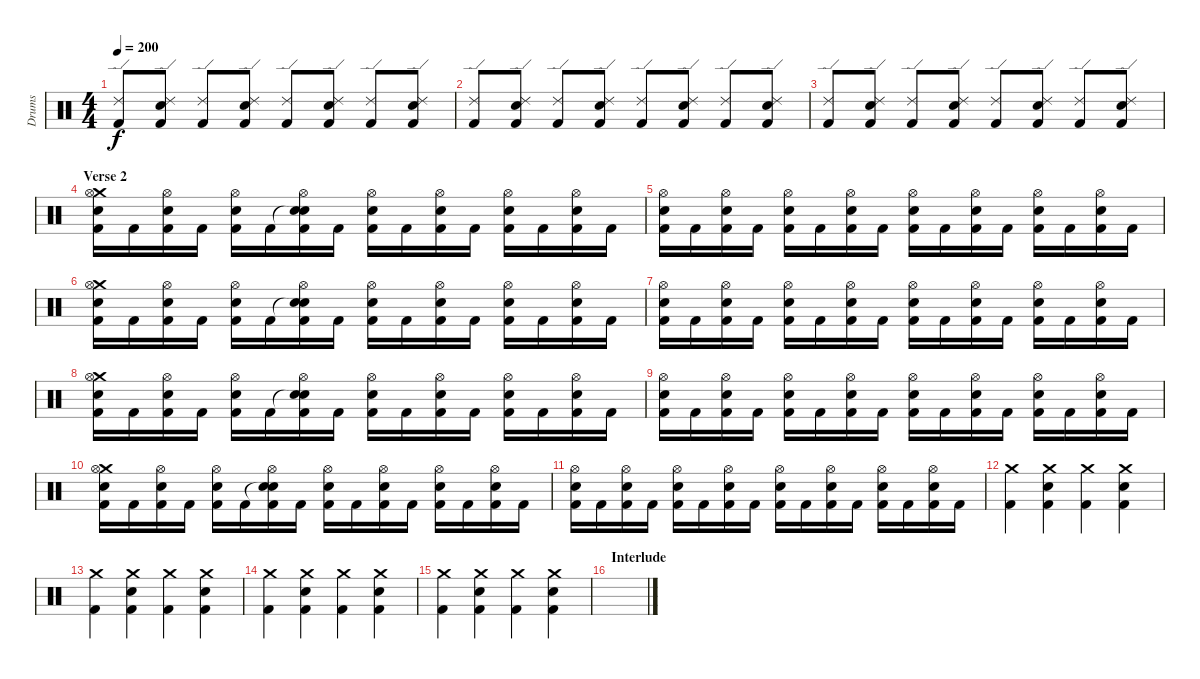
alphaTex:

\track ("Drums" "Drums") {instrument percussion}
\staff {score}
\articulation defaults
\ts (4 4)
\tempo 200
\clef neutral
\ks c
("Ride (edge) 2" "Kick (hit) 2").8{dy f} ("Ride (edge) 2" "Snare (hit) 2" "Kick (hit) 2").8 ("Ride (edge) 2" "Kick (hit) 2").8 ("Ride (edge) 2" "Snare (hit) 2" "Kick (hit) 2").8 ("Ride (edge) 2" "Kick (hit) 2").8 ("Ride (edge) 2" "Snare (hit) 2" "Kick (hit) 2").8 ("Ride (edge) 2" "Kick (hit) 2").8 ("Ride (edge) 2" "Snare (hit) 2" "Kick (hit) 2").8 |
("Ride (edge) 2" "Kick (hit) 2").8 ("Ride (edge) 2" "Snare (hit) 2" "Kick (hit) 2").8 ("Ride (edge) 2" "Kick (hit) 2").8 ("Ride (edge) 2" "Snare (hit) 2" "Kick (hit) 2").8 ("Ride (edge) 2" "Kick (hit) 2").8 ("Ride (edge) 2" "Snare (hit) 2" "Kick (hit) 2").8 ("Ride (edge) 2" "Kick (hit) 2").8 ("Ride (edge) 2" "Snare (hit) 2" "Kick (hit) 2").8 |
("Ride (edge) 2" "Kick (hit) 2").8 ("Ride (edge) 2" "Snare (hit) 2" "Kick (hit) 2").8 ("Ride (edge) 2" "Kick (hit) 2").8 ("Ride (edge) 2" "Snare (hit) 2" "Kick (hit) 2").8 ("Ride (edge) 2" "Kick (hit) 2").8 ("Ride (edge) 2" "Snare (hit) 2" "Kick (hit) 2").8 ("Ride (edge) 2" "Kick (hit) 2").8 ("Ride (edge) 2" "Snare (hit) 2" "Kick (hit) 2").8 |
\section ("" "Verse 2")
("Crash medium (hit)" "Snare (hit) 2" "Hi-Hat (open)" "Kick (hit) 2").16 "Kick (hit) 2".16 ("Snare (hit) 2" "Hi-Hat (open)" "Kick (hit) 2").16 "Kick (hit) 2".16 ("Snare (hit) 2" "Hi-Hat (open)" "Kick (hit) 2").16 "Kick (hit) 2".16 ("Snare (hit)"{t} "Snare (hit) 2" "Hi-Hat (open)" "Kick (hit) 2").16 "Kick (hit) 2".16 ("Snare (hit) 2" "Hi-Hat (open)" "Kick (hit) 2").16 "Kick (hit) 2".16 ("Snare (hit) 2" "Hi-Hat (open)" "Kick (hit) 2").16 "Kick (hit) 2".16 ("Snare (hit) 2" "Hi-Hat (open)" "Kick (hit) 2").16 "Kick (hit) 2".16 ("Snare (hit) 2" "Hi-Hat (open)" "Kick (hit) 2").16 "Kick (hit) 2".16 |
("Snare (hit) 2" "Hi-Hat (open)" "Kick (hit) 2").16 "Kick (hit) 2".16 ("Snare (hit) 2" "Hi-Hat (open)" "Kick (hit) 2").16 "Kick (hit) 2".16 ("Snare (hit) 2" "Hi-Hat (open)" "Kick (hit) 2").16 "Kick (hit) 2".16 ("Snare (hit) 2" "Hi-Hat (open)" "Kick (hit) 2").16 "Kick (hit) 2".16 ("Snare (hit) 2" "Hi-Hat (open)" "Kick (hit) 2").16 "Kick (hit) 2".16 ("Snare (hit) 2" "Hi-Hat (open)" "Kick (hit) 2").16 "Kick (hit) 2".16 ("Snare (hit) 2" "Hi-Hat (open)" "Kick (hit) 2").16 "Kick (hit) 2".16 ("Snare (hit) 2" "Hi-Hat (open)" "Kick (hit) 2").16 "Kick (hit) 2".16 |
("Crash medium (hit)" "Snare (hit) 2" "Hi-Hat (open)" "Kick (hit) 2").16 "Kick (hit) 2".16 ("Snare (hit) 2" "Hi-Hat (open)" "Kick (hit) 2").16 "Kick (hit) 2".16 ("Snare (hit) 2" "Hi-Hat (open)" "Kick (hit) 2").16 "Kick (hit) 2".16 ("Snare (hit)"{t} "Snare (hit) 2" "Hi-Hat (open)" "Kick (hit) 2").16 "Kick (hit) 2".16 ("Snare (hit) 2" "Hi-Hat (open)" "Kick (hit) 2").16 "Kick (hit) 2".16 ("Snare (hit) 2" "Hi-Hat (open)" "Kick (hit) 2").16 "Kick (hit) 2".16 ("Snare (hit) 2" "Hi-Hat (open)" "Kick (hit) 2").16 "Kick (hit) 2".16 ("Snare (hit) 2" "Hi-Hat (open)" "Kick (hit) 2").16 "Kick (hit) 2".16 |
("Snare (hit) 2" "Hi-Hat (open)" "Kick (hit) 2").16 "Kick (hit) 2".16 ("Snare (hit) 2" "Hi-Hat (open)" "Kick (hit) 2").16 "Kick (hit) 2".16 ("Snare (hit) 2" "Hi-Hat (open)" "Kick (hit) 2").16 "Kick (hit) 2".16 ("Snare (hit) 2" "Hi-Hat (open)" "Kick (hit) 2").16 "Kick (hit) 2".16 ("Snare (hit) 2" "Hi-Hat (open)" "Kick (hit) 2").16 "Kick (hit) 2".16 ("Snare (hit) 2" "Hi-Hat (open)" "Kick (hit) 2").16 "Kick (hit) 2".16 ("Snare (hit) 2" "Hi-Hat (open)" "Kick (hit) 2").16 "Kick (hit) 2".16 ("Snare (hit) 2" "Hi-Hat (open)" "Kick (hit) 2").16 "Kick (hit) 2".16 |
("Crash medium (hit)" "Snare (hit) 2" "Hi-Hat (open)" "Kick (hit) 2").16 "Kick (hit) 2".16 ("Snare (hit) 2" "Hi-Hat (open)" "Kick (hit) 2").16 "Kick (hit) 2".16 ("Snare (hit) 2" "Hi-Hat (open)" "Kick (hit) 2").16 "Kick (hit) 2".16 ("Snare (hit)"{t} "Snare (hit) 2" "Hi-Hat (open)" "Kick (hit) 2").16 "Kick (hit) 2".16 ("Snare (hit) 2" "Hi-Hat (open)" "Kick (hit) 2").16 "Kick (hit) 2".16 ("Snare (hit) 2" "Hi-Hat (open)" "Kick (hit) 2").16 "Kick (hit) 2".16 ("Snare (hit) 2" "Hi-Hat (open)" "Kick (hit) 2").16 "Kick (hit) 2".16 ("Snare (hit) 2" "Hi-Hat (open)" "Kick (hit) 2").16 "Kick (hit) 2".16 |
("Snare (hit) 2" "Hi-Hat (open)" "Kick (hit) 2").16 "Kick (hit) 2".16 ("Snare (hit) 2" "Hi-Hat (open)" "Kick (hit) 2").16 "Kick (hit) 2".16 ("Snare (hit) 2" "Hi-Hat (open)" "Kick (hit) 2").16 "Kick (hit) 2".16 ("Snare (hit) 2" "Hi-Hat (open)" "Kick (hit) 2").16 "Kick (hit) 2".16 ("Snare (hit) 2" "Hi-Hat (open)" "Kick (hit) 2").16 "Kick (hit) 2".16 ("Snare (hit) 2" "Hi-Hat (open)" "Kick (hit) 2").16 "Kick (hit) 2".16 ("Snare (hit) 2" "Hi-Hat (open)" "Kick (hit) 2").16 "Kick (hit) 2".16 ("Snare (hit) 2" "Hi-Hat (open)" "Kick (hit) 2").16 "Kick (hit) 2".16 |
("Crash medium (hit)" "Snare (hit) 2" "Hi-Hat (open)" "Kick (hit) 2").16 "Kick (hit) 2".16 ("Snare (hit) 2" "Hi-Hat (open)" "Kick (hit) 2").16 "Kick (hit) 2".16 ("Snare (hit) 2" "Hi-Hat (open)" "Kick (hit) 2").16 "Kick (hit) 2".16 ("Snare (hit)"{t} "Snare (hit) 2" "Hi-Hat (open)" "Kick (hit) 2").16 "Kick (hit) 2".16 ("Snare (hit) 2" "Hi-Hat (open)" "Kick (hit) 2").16 "Kick (hit) 2".16 ("Snare (hit) 2" "Hi-Hat (open)" "Kick (hit) 2").16 "Kick (hit) 2".16 ("Snare (hit) 2" "Hi-Hat (open)" "Kick (hit) 2").16 "Kick (hit) 2".16 ("Snare (hit) 2" "Hi-Hat (open)" "Kick (hit) 2").16 "Kick (hit) 2".16 |
("Snare (hit) 2" "Hi-Hat (open)" "Kick (hit) 2").16 "Kick (hit) 2".16 ("Snare (hit) 2" "Hi-Hat (open)" "Kick (hit) 2").16 "Kick (hit) 2".16 ("Snare (hit) 2" "Hi-Hat (open)" "Kick (hit) 2").16 "Kick (hit) 2".16 ("Snare (hit) 2" "Hi-Hat (open)" "Kick (hit) 2").16 "Kick (hit) 2".16 ("Snare (hit) 2" "Hi-Hat (open)" "Kick (hit) 2").16 "Kick (hit) 2".16 ("Snare (hit) 2" "Hi-Hat (open)" "Kick (hit) 2").16 "Kick (hit) 2".16 ("Snare (hit) 2" "Hi-Hat (open)" "Kick (hit) 2").16 "Kick (hit) 2".16 ("Snare (hit) 2" "Hi-Hat (open)" "Kick (hit) 2").16 "Kick (hit) 2".16 |
("Crash medium (hit)" "Kick (hit) 2").4 ("Crash medium (hit)" "Snare (hit) 2" "Kick (hit) 2").4 ("Crash medium (hit)" "Kick (hit) 2").4 ("Crash medium (hit)" "Snare (hit) 2" "Kick (hit) 2").4 |
("Crash medium (hit)" "Kick (hit) 2").4 ("Crash medium (hit)" "Snare (hit) 2" "Kick (hit) 2").4 ("Crash medium (hit)" "Kick (hit) 2").4 ("Crash medium (hit)" "Snare (hit) 2" "Kick (hit) 2").4 |
("Crash medium (hit)" "Kick (hit) 2").4 ("Crash medium (hit)" "Snare (hit) 2" "Kick (hit) 2").4 ("Crash medium (hit)" "Kick (hit) 2").4 ("Crash medium (hit)" "Snare (hit) 2" "Kick (hit) 2").4 |
("Crash medium (hit)" "Kick (hit) 2").4 ("Crash medium (hit)" "Snare (hit) 2" "Kick (hit) 2").4 ("Crash medium (hit)" "Kick (hit) 2").4 ("Crash medium (hit)" "Snare (hit) 2" "Kick (hit) 2").4 |
\section ("" "Interlude")
